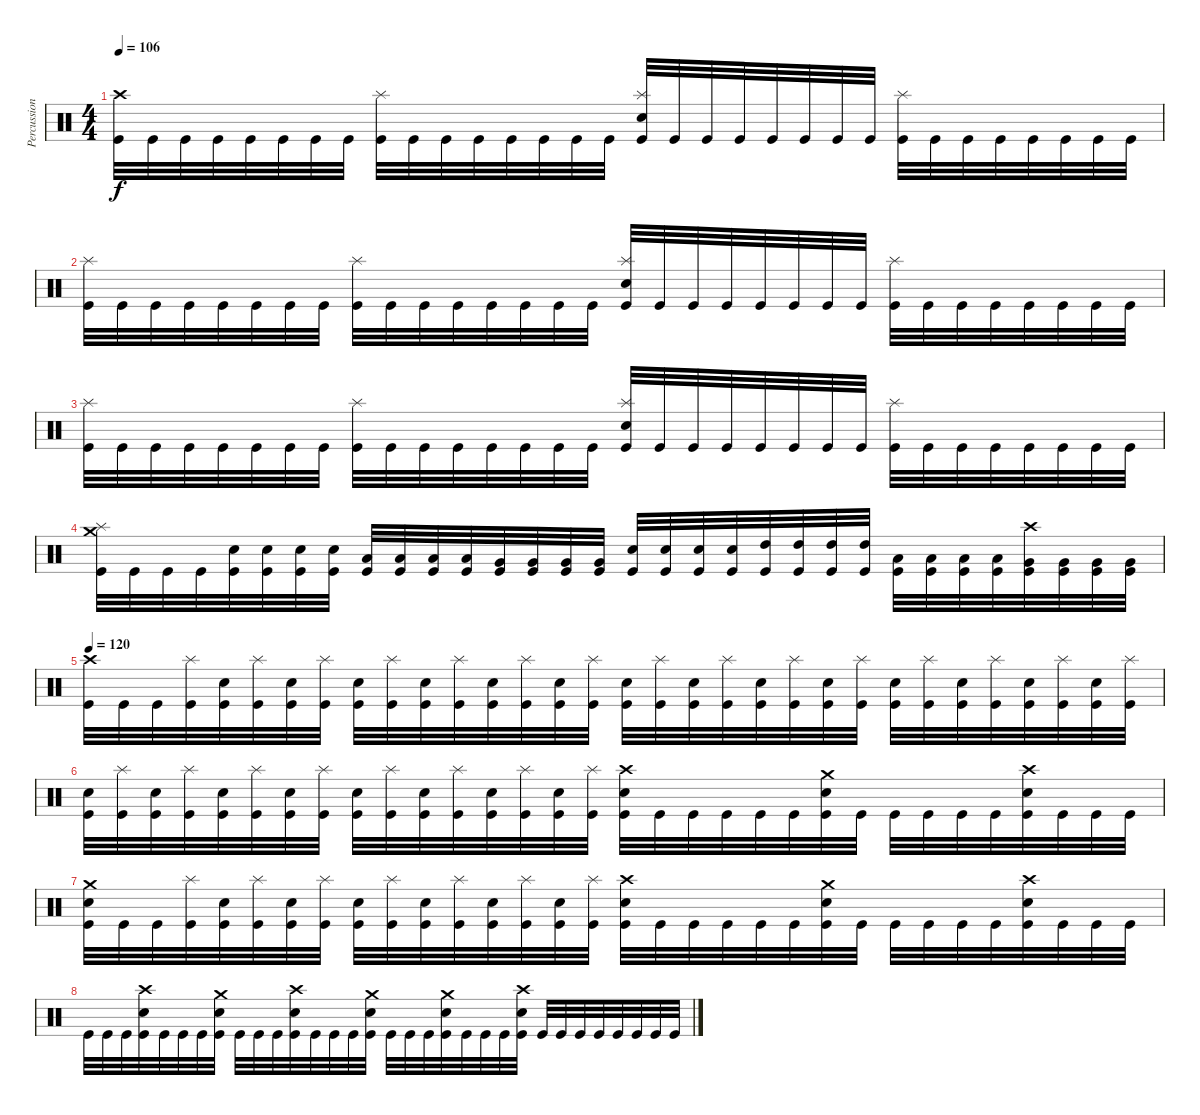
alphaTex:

\track ("Percussion" "Percussion") {instrument percussion}
\staff {score}
\articulation defaults
\ts (4 4)
\tempo 106
\clef neutral
\ks c
("Crash high (hit)" "Kick (hit)").32{dy f} "Kick (hit)".32 "Kick (hit)".32 "Kick (hit)".32 "Kick (hit)".32 "Kick (hit)".32 "Kick (hit)".32 "Kick (hit)".32 ("Splash (hit)" "Kick (hit)").32 "Kick (hit)".32 "Kick (hit)".32 "Kick (hit)".32 "Kick (hit)".32 "Kick (hit)".32 "Kick (hit)".32 "Kick (hit)".32 ("Splash (hit)" "Electric Snare (hit)" "Kick (hit)").32 "Kick (hit)".32 "Kick (hit)".32 "Kick (hit)".32 "Kick (hit)".32 "Kick (hit)".32 "Kick (hit)".32 "Kick (hit)".32 ("Splash (hit)" "Kick (hit)").32 "Kick (hit)".32 "Kick (hit)".32 "Kick (hit)".32 "Kick (hit)".32 "Kick (hit)".32 "Kick (hit)".32 "Kick (hit)".32 |
("Splash (hit)" "Kick (hit)").32 "Kick (hit)".32 "Kick (hit)".32 "Kick (hit)".32 "Kick (hit)".32 "Kick (hit)".32 "Kick (hit)".32 "Kick (hit)".32 ("Splash (hit)" "Kick (hit)").32 "Kick (hit)".32 "Kick (hit)".32 "Kick (hit)".32 "Kick (hit)".32 "Kick (hit)".32 "Kick (hit)".32 "Kick (hit)".32 ("Electric Snare (hit)" "Splash (hit)" "Kick (hit)").32 "Kick (hit)".32 "Kick (hit)".32 "Kick (hit)".32 "Kick (hit)".32 "Kick (hit)".32 "Kick (hit)".32 "Kick (hit)".32 ("Splash (hit)" "Kick (hit)").32 "Kick (hit)".32 "Kick (hit)".32 "Kick (hit)".32 "Kick (hit)".32 "Kick (hit)".32 "Kick (hit)".32 "Kick (hit)".32 |
("Splash (hit)" "Kick (hit)").32 "Kick (hit)".32 "Kick (hit)".32 "Kick (hit)".32 "Kick (hit)".32 "Kick (hit)".32 "Kick (hit)".32 "Kick (hit)".32 ("Splash (hit)" "Kick (hit)").32 "Kick (hit)".32 "Kick (hit)".32 "Kick (hit)".32 "Kick (hit)".32 "Kick (hit)".32 "Kick (hit)".32 "Kick (hit)".32 ("Electric Snare (hit)" "Splash (hit)" "Kick (hit)").32 "Kick (hit)".32 "Kick (hit)".32 "Kick (hit)".32 "Kick (hit)".32 "Kick (hit)".32 "Kick (hit)".32 "Kick (hit)".32 ("Splash (hit)" "Kick (hit)").32 "Kick (hit)".32 "Kick (hit)".32 "Kick (hit)".32 "Kick (hit)".32 "Kick (hit)".32 "Kick (hit)".32 "Kick (hit)".32 |
("Crash medium (hit)" "Splash (hit)" "Kick (hit)").32 "Kick (hit)".32 "Kick (hit)".32 "Kick (hit)".32 ("Electric Snare (hit)" "Kick (hit)").32 ("Electric Snare (hit)" "Kick (hit)").32 ("Electric Snare (hit)" "Kick (hit)").32 ("Electric Snare (hit)" "Kick (hit)").32 ("Low Tom (hit)" "Kick (hit)").32 ("Low Tom (hit)" "Kick (hit)").32 ("Low Tom (hit)" "Kick (hit)").32 ("Low Tom (hit)" "Kick (hit)").32 ("Very Low Tom (hit)" "Kick (hit)").32 ("Very Low Tom (hit)" "Kick (hit)").32 ("Very Low Tom (hit)" "Kick (hit)").32 ("Very Low Tom (hit)" "Kick (hit)").32 ("Electric Snare (hit)" "Kick (hit)").32 ("Electric Snare (hit)" "Kick (hit)").32 ("Electric Snare (hit)" "Kick (hit)").32 ("Electric Snare (hit)" "Kick (hit)").32 ("High Tom (hit)" "Kick (hit)").32 ("High Tom (hit)" "Kick (hit)").32 ("High Tom (hit)" "Kick (hit)").32 ("High Tom (hit)" "Kick (hit)").32 ("Low Tom (hit)" "Kick (hit)").32 ("Low Tom (hit)" "Kick (hit)").32 ("Low Tom (hit)" "Kick (hit)").32 ("Low Tom (hit)" "Kick (hit)").32 ("Crash high (hit)" "Very Low Tom (hit)" "Kick (hit)").32 ("Very Low Tom (hit)" "Kick (hit)").32 ("Very Low Tom (hit)" "Kick (hit)").32 ("Very Low Tom (hit)" "Kick (hit)").32 |
\tempo 120
("Crash high (hit)" "Kick (hit)").32 "Kick (hit)".32 "Kick (hit)".32 ("Splash (hit)" "Kick (hit)").32 ("Electric Snare (hit)" "Kick (hit)").32 ("Splash (hit)" "Kick (hit)").32 ("Electric Snare (hit)" "Kick (hit)").32 ("Splash (hit)" "Kick (hit)").32 ("Electric Snare (hit)" "Kick (hit)").32 ("Splash (hit)" "Kick (hit)").32 ("Electric Snare (hit)" "Kick (hit)").32 ("Splash (hit)" "Kick (hit)").32 ("Electric Snare (hit)" "Kick (hit)").32 ("Splash (hit)" "Kick (hit)").32 ("Electric Snare (hit)" "Kick (hit)").32 ("Splash (hit)" "Kick (hit)").32 ("Electric Snare (hit)" "Kick (hit)").32 ("Splash (hit)" "Kick (hit)").32 ("Electric Snare (hit)" "Kick (hit)").32 ("Splash (hit)" "Kick (hit)").32 ("Electric Snare (hit)" "Kick (hit)").32 ("Splash (hit)" "Kick (hit)").32 ("Electric Snare (hit)" "Kick (hit)").32 ("Splash (hit)" "Kick (hit)").32 ("Electric Snare (hit)" "Kick (hit)").32 ("Splash (hit)" "Kick (hit)").32 ("Electric Snare (hit)" "Kick (hit)").32 ("Splash (hit)" "Kick (hit)").32 ("Electric Snare (hit)" "Kick (hit)").32 ("Splash (hit)" "Kick (hit)").32 ("Electric Snare (hit)" "Kick (hit)").32 ("Splash (hit)" "Kick (hit)").32 |
("Electric Snare (hit)" "Kick (hit)").32 ("Splash (hit)" "Kick (hit)").32 ("Electric Snare (hit)" "Kick (hit)").32 ("Splash (hit)" "Kick (hit)").32 ("Electric Snare (hit)" "Kick (hit)").32 ("Splash (hit)" "Kick (hit)").32 ("Electric Snare (hit)" "Kick (hit)").32 ("Splash (hit)" "Kick (hit)").32 ("Electric Snare (hit)" "Kick (hit)").32 ("Splash (hit)" "Kick (hit)").32 ("Electric Snare (hit)" "Kick (hit)").32 ("Splash (hit)" "Kick (hit)").32 ("Electric Snare (hit)" "Kick (hit)").32 ("Splash (hit)" "Kick (hit)").32 ("Electric Snare (hit)" "Kick (hit)").32 ("Splash (hit)" "Kick (hit)").32 ("Crash high (hit)" "Electric Snare (hit)" "Kick (hit)").32 "Kick (hit)".32 "Kick (hit)".32 "Kick (hit)".32 "Kick (hit)".32 "Kick (hit)".32 ("Crash medium (hit)" "Electric Snare (hit)" "Kick (hit)").32 "Kick (hit)".32 "Kick (hit)".32 "Kick (hit)".32 "Kick (hit)".32 "Kick (hit)".32 ("Crash high (hit)" "Electric Snare (hit)" "Kick (hit)").32 "Kick (hit)".32 "Kick (hit)".32 "Kick (hit)".32 |
("Crash medium (hit)" "Electric Snare (hit)" "Kick (hit)").32 "Kick (hit)".32 "Kick (hit)".32 ("Splash (hit)" "Kick (hit)").32 ("Electric Snare (hit)" "Kick (hit)").32 ("Splash (hit)" "Kick (hit)").32 ("Electric Snare (hit)" "Kick (hit)").32 ("Splash (hit)" "Kick (hit)").32 ("Electric Snare (hit)" "Kick (hit)").32 ("Splash (hit)" "Kick (hit)").32 ("Electric Snare (hit)" "Kick (hit)").32 ("Splash (hit)" "Kick (hit)").32 ("Electric Snare (hit)" "Kick (hit)").32 ("Splash (hit)" "Kick (hit)").32 ("Electric Snare (hit)" "Kick (hit)").32 ("Splash (hit)" "Kick (hit)").32 ("Crash high (hit)" "Electric Snare (hit)" "Kick (hit)").32 "Kick (hit)".32 "Kick (hit)".32 "Kick (hit)".32 "Kick (hit)".32 "Kick (hit)".32 ("Crash medium (hit)" "Electric Snare (hit)" "Kick (hit)").32 "Kick (hit)".32 "Kick (hit)".32 "Kick (hit)".32 "Kick (hit)".32 "Kick (hit)".32 ("Crash high (hit)" "Electric Snare (hit)" "Kick (hit)").32 "Kick (hit)".32 "Kick (hit)".32 "Kick (hit)".32 |
"Kick (hit)".32 "Kick (hit)".32 "Kick (hit)".32 ("Crash high (hit)" "Electric Snare (hit)" "Kick (hit)").32 "Kick (hit)".32 "Kick (hit)".32 "Kick (hit)".32 ("Crash medium (hit)" "Electric Snare (hit)" "Kick (hit)").32 "Kick (hit)".32 "Kick (hit)".32 "Kick (hit)".32 ("Crash high (hit)" "Electric Snare (hit)" "Kick (hit)").32 "Kick (hit)".32 "Kick (hit)".32 "Kick (hit)".32 ("Crash medium (hit)" "Electric Snare (hit)" "Kick (hit)").32 "Kick (hit)".32 "Kick (hit)".32 "Kick (hit)".32 ("Crash medium (hit)" "Electric Snare (hit)" "Kick (hit)").32 "Kick (hit)".32 "Kick (hit)".32 "Kick (hit)".32 ("Crash high (hit)" "Electric Snare (hit)" "Kick (hit)").32 "Kick (hit)".32 "Kick (hit)".32 "Kick (hit)".32 "Kick (hit)".32 "Kick (hit)".32 "Kick (hit)".32 "Kick (hit)".32 "Kick (hit)".32
